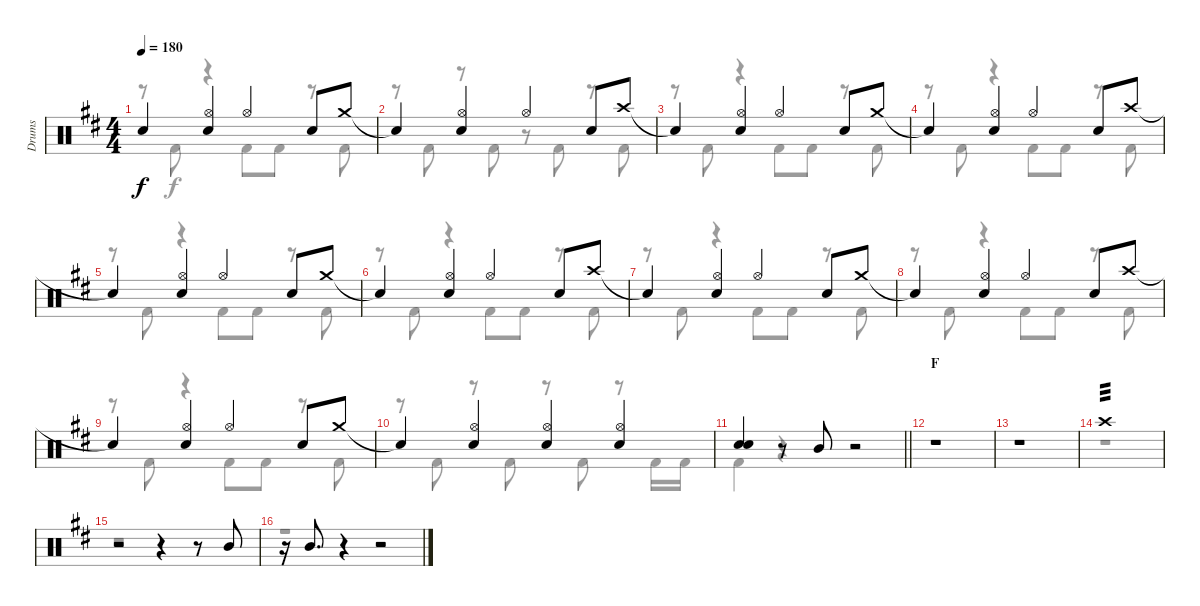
\track ("Drums" "Drums") {instrument percussion}
\staff {score}
\articulation defaults
\voice
\ts (4 4)
\tempo 180
\clef neutral
\ks d "Snare (hit)"{t}.4{dy f}
("Hi-Hat (open)" "Snare (hit) 2").4 "Hi-Hat (open)".4 "Snare (hit) 2".8 "Crash medium (hit)".8 |
"Snare (hit)"{t}.4 ("Hi-Hat (open)" "Snare (hit) 2").4 "Hi-Hat (open)".4 "Snare (hit) 2".8 "Crash high (hit)".8 |
"Snare (hit)"{t}.4 ("Hi-Hat (open)" "Snare (hit) 2").4 "Hi-Hat (open)".4 "Snare (hit) 2".8 "Crash medium (hit)".8 |
"Snare (hit)"{t}.4 ("Hi-Hat (open)" "Snare (hit) 2").4 "Hi-Hat (open)".4 "Snare (hit) 2".8 "Crash high (hit)".8 |
"Snare (hit)"{t}.4 ("Hi-Hat (open)" "Snare (hit) 2").4 "Hi-Hat (open)".4 "Snare (hit) 2".8 "Crash medium (hit)".8 |
"Snare (hit)"{t}.4 ("Hi-Hat (open)" "Snare (hit) 2").4 "Hi-Hat (open)".4 "Snare (hit) 2".8 "Crash high (hit)".8 |
"Snare (hit)"{t}.4 ("Hi-Hat (open)" "Snare (hit) 2").4 "Hi-Hat (open)".4 "Snare (hit) 2".8 "Crash medium (hit)".8 |
"Snare (hit)"{t}.4 ("Hi-Hat (open)" "Snare (hit) 2").4 "Hi-Hat (open)".4 "Snare (hit) 2".8 "Crash high (hit)".8 |
"Snare (hit)"{t}.4 ("Hi-Hat (open)" "Snare (hit) 2").4 "Hi-Hat (open)".4 "Snare (hit) 2".8 "Crash medium (hit)".8 |
"Snare (hit)"{t}.4 ("Hi-Hat (open)" "Snare (hit) 2").4 ("Hi-Hat (open)" "Snare (hit) 2").4 ("Hi-Hat (open)" "Snare (hit) 2").4 |
\barLineRight lightlight
("Snare (hit) 2" "Snare (hit) 2").4 r.8 "Mid Tom (hit)".8 r.2 |
\section ("" "F")
r.1 |
r.1 |
"Crash high (hit)".1{tp 3} |
r.2 r.4 r.8 "Mid Tom (hit)".8 |
r.16 "Mid Tom (hit)".8{d} r.4 r.2
\voice
\clef neutral
\ottava regular
\simile none
\ks d
r.8{dy f} "Kick (hit) 2".8 r.4 "Kick (hit) 2".8 "Kick (hit) 2".8 r.8 "Kick (hit) 2".8 |
r.8 "Kick (hit) 2".8 r.8 "Kick (hit) 2".8 r.8 "Kick (hit) 2".8 r.8 "Kick (hit) 2".8 |
r.8 "Kick (hit) 2".8 r.4 "Kick (hit) 2".8 "Kick (hit) 2".8 r.8 "Kick (hit) 2".8 |
r.8 "Kick (hit) 2".8 r.4 "Kick (hit) 2".8 "Kick (hit) 2".8 r.8 "Kick (hit) 2".8 |
r.8 "Kick (hit) 2".8 r.4 "Kick (hit) 2".8 "Kick (hit) 2".8 r.8 "Kick (hit) 2".8 |
r.8 "Kick (hit) 2".8 r.4 "Kick (hit) 2".8 "Kick (hit) 2".8 r.8 "Kick (hit) 2".8 |
r.8 "Kick (hit) 2".8 r.4 "Kick (hit) 2".8 "Kick (hit) 2".8 r.8 "Kick (hit) 2".8 |
r.8 "Kick (hit) 2".8 r.4 "Kick (hit) 2".8 "Kick (hit) 2".8 r.8 "Kick (hit) 2".8 |
r.8 "Kick (hit) 2".8 r.4 "Kick (hit) 2".8 "Kick (hit) 2".8 r.8 "Kick (hit) 2".8 |
r.8 "Kick (hit) 2".8 r.8 "Kick (hit) 2".8 r.8 "Kick (hit) 2".8 r.8 "Kick (hit) 2".16 "Kick (hit) 2".16 |
\barLineRight lightlight "Kick (hit) 2".4
r.4 r.2 |
r.1 |
r.1 |
r.1 |
r.1 |
r.1
